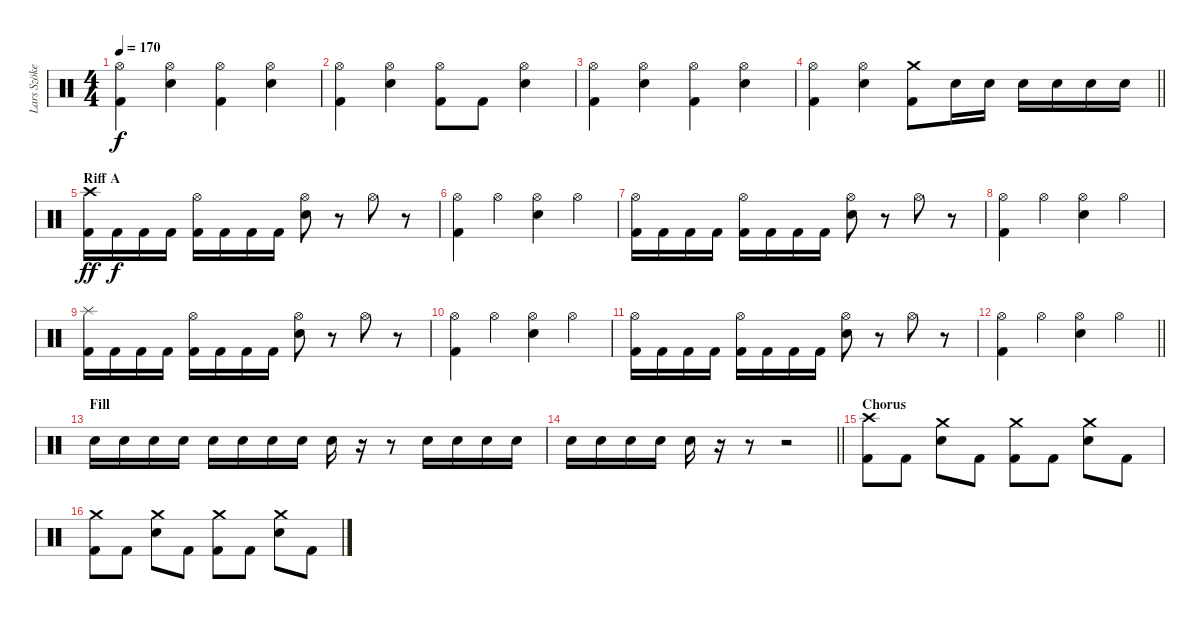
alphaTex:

\track ("Lars Szöke" "Lars Szöke") {instrument percussion}
\staff {score}
\articulation defaults
\ts (4 4)
\tempo 170
\clef neutral
\ks c
("Hi-Hat (open)" "Kick (hit) 2").4{dy f} ("Hi-Hat (open)" "Snare (hit) 2").4 ("Hi-Hat (open)" "Kick (hit) 2").4 ("Hi-Hat (open)" "Snare (hit) 2").4 |
("Hi-Hat (open)" "Kick (hit) 2").4 ("Hi-Hat (open)" "Snare (hit) 2").4 ("Hi-Hat (open)" "Kick (hit) 2").8 "Kick (hit) 2".8 ("Hi-Hat (open)" "Snare (hit) 2").4 |
("Hi-Hat (open)" "Kick (hit) 2").4 ("Hi-Hat (open)" "Snare (hit) 2").4 ("Hi-Hat (open)" "Kick (hit) 2").4 ("Hi-Hat (open)" "Snare (hit) 2").4 |
\barLineRight lightlight
("Hi-Hat (open)" "Kick (hit) 2").4 ("Hi-Hat (open)" "Snare (hit) 2").4 ("Crash medium (hit)" "Kick (hit) 2").8 "Snare (hit) 2".16 "Snare (hit) 2".16 "Snare (hit) 2".16 "Snare (hit) 2".16 "Snare (hit) 2".16 "Snare (hit) 2".16 |
\section ("" "Riff A")
("Crash high (hit)" "Kick (hit) 2").16{dy ff} "Kick (hit) 2".16{dy f} "Kick (hit) 2".16 "Kick (hit) 2".16 ("Hi-Hat (open)" "Kick (hit) 2").16 "Kick (hit) 2".16 "Kick (hit) 2".16 "Kick (hit) 2".16 ("Hi-Hat (open)" "Snare (hit) 2").8 r.8 "Hi-Hat (open)".8 r.8 |
("Hi-Hat (open)" "Kick (hit) 2").4 "Hi-Hat (open)".4 ("Hi-Hat (open)" "Snare (hit) 2").4 "Hi-Hat (open)".4 |
("Hi-Hat (open)" "Kick (hit) 2").16 "Kick (hit) 2".16 "Kick (hit) 2".16 "Kick (hit) 2".16 ("Hi-Hat (open)" "Kick (hit) 2").16 "Kick (hit) 2".16 "Kick (hit) 2".16 "Kick (hit) 2".16 ("Hi-Hat (open)" "Snare (hit) 2").8 r.8 "Hi-Hat (open)".8 r.8 |
("Hi-Hat (open)" "Kick (hit) 2").4 "Hi-Hat (open)".4 ("Hi-Hat (open)" "Snare (hit) 2").4 "Hi-Hat (open)".4 |
("Splash (hit)" "Kick (hit) 2").16 "Kick (hit) 2".16 "Kick (hit) 2".16 "Kick (hit) 2".16 ("Hi-Hat (open)" "Kick (hit) 2").16 "Kick (hit) 2".16 "Kick (hit) 2".16 "Kick (hit) 2".16 ("Hi-Hat (open)" "Snare (hit) 2").8 r.8 "Hi-Hat (open)".8 r.8 |
("Hi-Hat (open)" "Kick (hit) 2").4 "Hi-Hat (open)".4 ("Hi-Hat (open)" "Snare (hit) 2").4 "Hi-Hat (open)".4 |
("Hi-Hat (open)" "Kick (hit) 2").16 "Kick (hit) 2".16 "Kick (hit) 2".16 "Kick (hit) 2".16 ("Hi-Hat (open)" "Kick (hit) 2").16 "Kick (hit) 2".16 "Kick (hit) 2".16 "Kick (hit) 2".16 ("Hi-Hat (open)" "Snare (hit) 2").8 r.8 "Hi-Hat (open)".8 r.8 |
\barLineRight lightlight
("Hi-Hat (open)" "Kick (hit) 2").4 "Hi-Hat (open)".4 ("Hi-Hat (open)" "Snare (hit) 2").4 "Hi-Hat (open)".4 |
\section ("" "Fill")
"Snare (hit) 2".16 "Snare (hit) 2".16 "Snare (hit) 2".16 "Snare (hit) 2".16 "Snare (hit) 2".16 "Snare (hit) 2".16 "Snare (hit) 2".16 "Snare (hit) 2".16 "Snare (hit) 2".16 r.16 r.8 "Snare (hit) 2".16 "Snare (hit) 2".16 "Snare (hit) 2".16 "Snare (hit) 2".16 |
\barLineRight lightlight "Snare (hit) 2".16 "Snare (hit) 2".16 "Snare (hit) 2".16 "Snare (hit) 2".16 "Snare (hit) 2".16
r.16 r.8 r.2 |
\section ("" "Chorus")
("Crash high (hit)" "Kick (hit) 2").8 "Kick (hit) 2".8 ("Crash medium (hit)" "Snare (hit) 2").8 "Kick (hit) 2".8 ("Crash medium (hit)" "Kick (hit) 2").8 "Kick (hit) 2".8 ("Crash medium (hit)" "Snare (hit) 2").8 "Kick (hit) 2".8 |
("Crash medium (hit)" "Kick (hit) 2").8 "Kick (hit) 2".8 ("Crash medium (hit)" "Snare (hit) 2").8 "Kick (hit) 2".8 ("Crash medium (hit)" "Kick (hit) 2").8 "Kick (hit) 2".8 ("Crash medium (hit)" "Snare (hit) 2").8 "Kick (hit) 2".8
